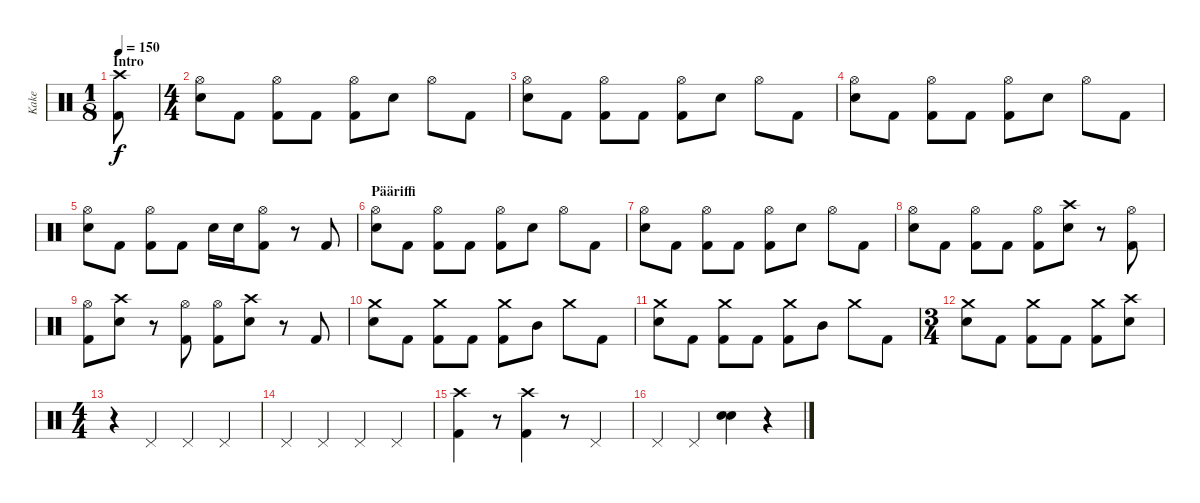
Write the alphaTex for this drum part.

\track ("Kake" "Kake") {instrument percussion}
\staff {score}
\articulation defaults
\ts (1 8)
\section ("" "Intro")
\tempo 150
\clef neutral
\ks c
("Crash high (hit)" "Kick (hit) 2").8{dy f} |
\ts (4 4)
("Hi-Hat (open)" "Electric Snare (hit)").8 "Kick (hit) 2".8 ("Hi-Hat (open)" "Kick (hit) 2").8 "Kick (hit) 2".8 ("Hi-Hat (open)" "Kick (hit) 2").8 "Electric Snare (hit)".8 "Hi-Hat (open)".8 "Kick (hit) 2".8 |
("Hi-Hat (open)" "Electric Snare (hit)").8 "Kick (hit) 2".8 ("Hi-Hat (open)" "Kick (hit) 2").8 "Kick (hit) 2".8 ("Hi-Hat (open)" "Kick (hit) 2").8 "Electric Snare (hit)".8 "Hi-Hat (open)".8 "Kick (hit) 2".8 |
("Hi-Hat (open)" "Electric Snare (hit)").8 "Kick (hit) 2".8 ("Hi-Hat (open)" "Kick (hit) 2").8 "Kick (hit) 2".8 ("Hi-Hat (open)" "Kick (hit) 2").8 "Electric Snare (hit)".8 "Hi-Hat (open)".8 "Kick (hit) 2".8 |
("Hi-Hat (open)" "Electric Snare (hit)").8 "Kick (hit) 2".8 ("Hi-Hat (open)" "Kick (hit) 2").8 "Kick (hit) 2".8 "Electric Snare (hit)".16 "Electric Snare (hit)".16 ("Hi-Hat (open)" "Kick (hit) 2").8 r.8 "Kick (hit) 2".8 |
\section ("" "Pääriffi")
("Hi-Hat (open)" "Electric Snare (hit)").8 "Kick (hit) 2".8 ("Hi-Hat (open)" "Kick (hit) 2").8 "Kick (hit) 2".8 ("Hi-Hat (open)" "Kick (hit) 2").8 "Electric Snare (hit)".8 "Hi-Hat (open)".8 "Kick (hit) 2".8 |
("Hi-Hat (open)" "Electric Snare (hit)").8 "Kick (hit) 2".8 ("Hi-Hat (open)" "Kick (hit) 2").8 "Kick (hit) 2".8 ("Hi-Hat (open)" "Kick (hit) 2").8 "Electric Snare (hit)".8 "Hi-Hat (open)".8 "Kick (hit) 2".8 |
("Hi-Hat (open)" "Electric Snare (hit)").8 "Kick (hit) 2".8 ("Hi-Hat (open)" "Kick (hit) 2").8 "Kick (hit) 2".8 ("Hi-Hat (open)" "Kick (hit) 2").8 ("Crash high (hit)" "Electric Snare (hit)").8 r.8 ("Hi-Hat (open)" "Kick (hit) 2").8 |
("Hi-Hat (open)" "Kick (hit) 2").8 ("Crash high (hit)" "Electric Snare (hit)").8 r.8 ("Hi-Hat (open)" "Kick (hit) 2").8 ("Hi-Hat (open)" "Kick (hit) 2").8 ("Crash high (hit)" "Electric Snare (hit)").8 r.8 "Kick (hit) 2".8 |
("Crash medium (hit)" "Electric Snare (hit)").8 "Kick (hit) 2".8 ("Crash medium (hit)" "Kick (hit) 2").8 "Kick (hit) 2".8 ("Crash medium (hit)" "Kick (hit) 2").8 "Mid Tom (hit)".8 "Crash medium (hit)".8 "Kick (hit) 2".8 |
("Crash medium (hit)" "Electric Snare (hit)").8 "Kick (hit) 2".8 ("Crash medium (hit)" "Kick (hit) 2").8 "Kick (hit) 2".8 ("Crash medium (hit)" "Kick (hit) 2").8 "Mid Tom (hit)".8 "Crash medium (hit)".8 "Kick (hit) 2".8 |
\ts (3 4)
("Crash medium (hit)" "Electric Snare (hit)").8 "Kick (hit) 2".8 ("Crash medium (hit)" "Kick (hit) 2").8 "Kick (hit) 2".8 ("Crash medium (hit)" "Kick (hit) 2").8 ("Crash high (hit)" "Electric Snare (hit)").8 |
\ts (4 4)
r.4 "Pedal Hi-Hat (hit)".4 "Pedal Hi-Hat (hit)".4 "Pedal Hi-Hat (hit)".4 |
"Pedal Hi-Hat (hit)".4 "Pedal Hi-Hat (hit)".4 "Pedal Hi-Hat (hit)".4 "Pedal Hi-Hat (hit)".4 |
("Crash high (hit)" "Kick (hit) 2").4 r.8 ("Crash high (hit)" "Kick (hit) 2").4 r.8 "Pedal Hi-Hat (hit)".4 |
"Pedal Hi-Hat (hit)".4 "Pedal Hi-Hat (hit)".4 ("Electric Snare (hit)" "Electric Snare (hit)").4 r.4
